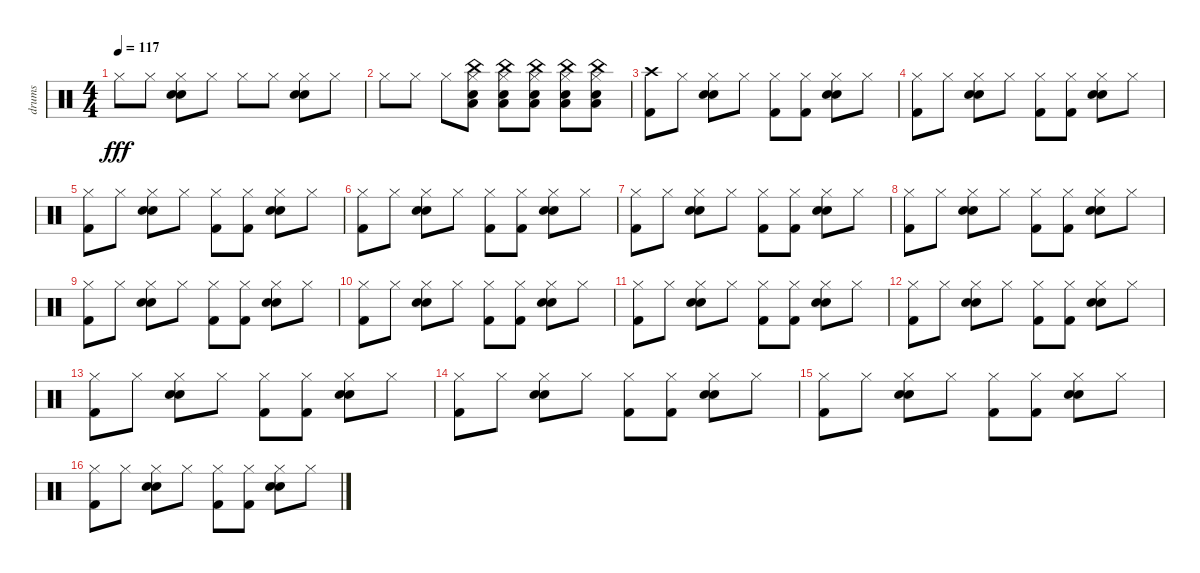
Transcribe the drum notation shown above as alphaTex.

\track ("drums" "drums") {instrument percussion}
\staff {score}
\articulation defaults
\ts (4 4)
\tempo 117
\clef neutral
\ks c "Hi-Hat (closed)".8{dy fff} "Hi-Hat (closed)".8
("Hi-Hat (closed)" "Electric Snare (hit)" "Electric Snare (hit)").8 "Hi-Hat (closed)".8 "Hi-Hat (closed)".8 "Hi-Hat (closed)".8 ("Hi-Hat (closed)" "Electric Snare (hit)" "Electric Snare (hit)").8 "Hi-Hat (closed)".8 |
"Hi-Hat (closed)".8 "Hi-Hat (closed)".8 "Hi-Hat (closed)".8 ("Low Tom (hit)" "Electric Snare (hit)" "China (hit)" "Hi-Hat (closed)").8 ("Low Tom (hit)" "China (hit)" "Electric Snare (hit)" "Hi-Hat (closed)").8 ("China (hit)" "Low Tom (hit)" "Electric Snare (hit)" "Hi-Hat (closed)").8 ("China (hit)" "Low Tom (hit)" "Electric Snare (hit)" "Hi-Hat (closed)").8 ("China (hit)" "Low Tom (hit)" "Electric Snare (hit)" "Hi-Hat (closed)").8 |
("Kick (hit) 2" "Crash high (hit)").8 "Hi-Hat (closed)".8 ("Hi-Hat (closed)" "Electric Snare (hit)" "Electric Snare (hit)").8 "Hi-Hat (closed)".8 ("Kick (hit) 2" "Hi-Hat (closed)").8 ("Kick (hit) 2" "Hi-Hat (closed)").8 ("Hi-Hat (closed)" "Electric Snare (hit)" "Electric Snare (hit)").8 "Hi-Hat (closed)".8 |
("Kick (hit) 2" "Hi-Hat (closed)").8 "Hi-Hat (closed)".8 ("Hi-Hat (closed)" "Electric Snare (hit)" "Electric Snare (hit)").8 "Hi-Hat (closed)".8 ("Kick (hit) 2" "Hi-Hat (closed)").8 ("Kick (hit) 2" "Hi-Hat (closed)").8 ("Hi-Hat (closed)" "Electric Snare (hit)" "Electric Snare (hit)").8 "Hi-Hat (closed)".8 |
("Kick (hit) 2" "Hi-Hat (closed)").8 "Hi-Hat (closed)".8 ("Hi-Hat (closed)" "Electric Snare (hit)" "Electric Snare (hit)").8 "Hi-Hat (closed)".8 ("Kick (hit) 2" "Hi-Hat (closed)").8 ("Kick (hit) 2" "Hi-Hat (closed)").8 ("Hi-Hat (closed)" "Electric Snare (hit)" "Electric Snare (hit)").8 "Hi-Hat (closed)".8 |
("Kick (hit) 2" "Hi-Hat (closed)").8 "Hi-Hat (closed)".8 ("Hi-Hat (closed)" "Electric Snare (hit)" "Electric Snare (hit)").8 "Hi-Hat (closed)".8 ("Kick (hit) 2" "Hi-Hat (closed)").8 ("Kick (hit) 2" "Hi-Hat (closed)").8 ("Hi-Hat (closed)" "Electric Snare (hit)" "Electric Snare (hit)").8 "Hi-Hat (closed)".8 |
("Kick (hit) 2" "Hi-Hat (closed)").8 "Hi-Hat (closed)".8 ("Hi-Hat (closed)" "Electric Snare (hit)" "Electric Snare (hit)").8 "Hi-Hat (closed)".8 ("Kick (hit) 2" "Hi-Hat (closed)").8 ("Kick (hit) 2" "Hi-Hat (closed)").8 ("Hi-Hat (closed)" "Electric Snare (hit)" "Electric Snare (hit)").8 "Hi-Hat (closed)".8 |
("Kick (hit) 2" "Hi-Hat (closed)").8 "Hi-Hat (closed)".8 ("Hi-Hat (closed)" "Electric Snare (hit)" "Electric Snare (hit)").8 "Hi-Hat (closed)".8 ("Kick (hit) 2" "Hi-Hat (closed)").8 ("Kick (hit) 2" "Hi-Hat (closed)").8 ("Hi-Hat (closed)" "Electric Snare (hit)" "Electric Snare (hit)").8 "Hi-Hat (closed)".8 |
("Kick (hit) 2" "Hi-Hat (closed)").8 "Hi-Hat (closed)".8 ("Hi-Hat (closed)" "Electric Snare (hit)" "Electric Snare (hit)").8 "Hi-Hat (closed)".8 ("Kick (hit) 2" "Hi-Hat (closed)").8 ("Kick (hit) 2" "Hi-Hat (closed)").8 ("Hi-Hat (closed)" "Electric Snare (hit)" "Electric Snare (hit)").8 "Hi-Hat (closed)".8 |
("Kick (hit) 2" "Hi-Hat (closed)").8 "Hi-Hat (closed)".8 ("Hi-Hat (closed)" "Electric Snare (hit)" "Electric Snare (hit)").8 "Hi-Hat (closed)".8 ("Kick (hit) 2" "Hi-Hat (closed)").8 ("Kick (hit) 2" "Hi-Hat (closed)").8 ("Hi-Hat (closed)" "Electric Snare (hit)" "Electric Snare (hit)").8 "Hi-Hat (closed)".8 |
("Kick (hit) 2" "Hi-Hat (closed)").8 "Hi-Hat (closed)".8 ("Hi-Hat (closed)" "Electric Snare (hit)" "Electric Snare (hit)").8 "Hi-Hat (closed)".8 ("Kick (hit) 2" "Hi-Hat (closed)").8 ("Kick (hit) 2" "Hi-Hat (closed)").8 ("Hi-Hat (closed)" "Electric Snare (hit)" "Electric Snare (hit)").8 "Hi-Hat (closed)".8 |
("Kick (hit) 2" "Hi-Hat (closed)").8 "Hi-Hat (closed)".8 ("Hi-Hat (closed)" "Electric Snare (hit)" "Electric Snare (hit)").8 "Hi-Hat (closed)".8 ("Kick (hit) 2" "Hi-Hat (closed)").8 ("Kick (hit) 2" "Hi-Hat (closed)").8 ("Hi-Hat (closed)" "Electric Snare (hit)" "Electric Snare (hit)").8 "Hi-Hat (closed)".8 |
("Kick (hit) 2" "Hi-Hat (closed)").8 "Hi-Hat (closed)".8 ("Hi-Hat (closed)" "Electric Snare (hit)" "Electric Snare (hit)").8 "Hi-Hat (closed)".8 ("Kick (hit) 2" "Hi-Hat (closed)").8 ("Kick (hit) 2" "Hi-Hat (closed)").8 ("Hi-Hat (closed)" "Electric Snare (hit)" "Electric Snare (hit)").8 "Hi-Hat (closed)".8 |
("Kick (hit) 2" "Hi-Hat (closed)").8 "Hi-Hat (closed)".8 ("Hi-Hat (closed)" "Electric Snare (hit)" "Electric Snare (hit)").8 "Hi-Hat (closed)".8 ("Kick (hit) 2" "Hi-Hat (closed)").8 ("Kick (hit) 2" "Hi-Hat (closed)").8 ("Hi-Hat (closed)" "Electric Snare (hit)" "Electric Snare (hit)").8 "Hi-Hat (closed)".8 |
("Kick (hit) 2" "Hi-Hat (closed)").8 "Hi-Hat (closed)".8 ("Hi-Hat (closed)" "Electric Snare (hit)" "Electric Snare (hit)").8 "Hi-Hat (closed)".8 ("Kick (hit) 2" "Hi-Hat (closed)").8 ("Kick (hit) 2" "Hi-Hat (closed)").8 ("Hi-Hat (closed)" "Electric Snare (hit)" "Electric Snare (hit)").8 "Hi-Hat (closed)".8 |
("Kick (hit) 2" "Hi-Hat (closed)").8 "Hi-Hat (closed)".8 ("Hi-Hat (closed)" "Electric Snare (hit)" "Electric Snare (hit)").8 "Hi-Hat (closed)".8 ("Kick (hit) 2" "Hi-Hat (closed)").8 ("Kick (hit) 2" "Hi-Hat (closed)").8 ("Hi-Hat (closed)" "Electric Snare (hit)" "Electric Snare (hit)").8 "Hi-Hat (closed)".8
